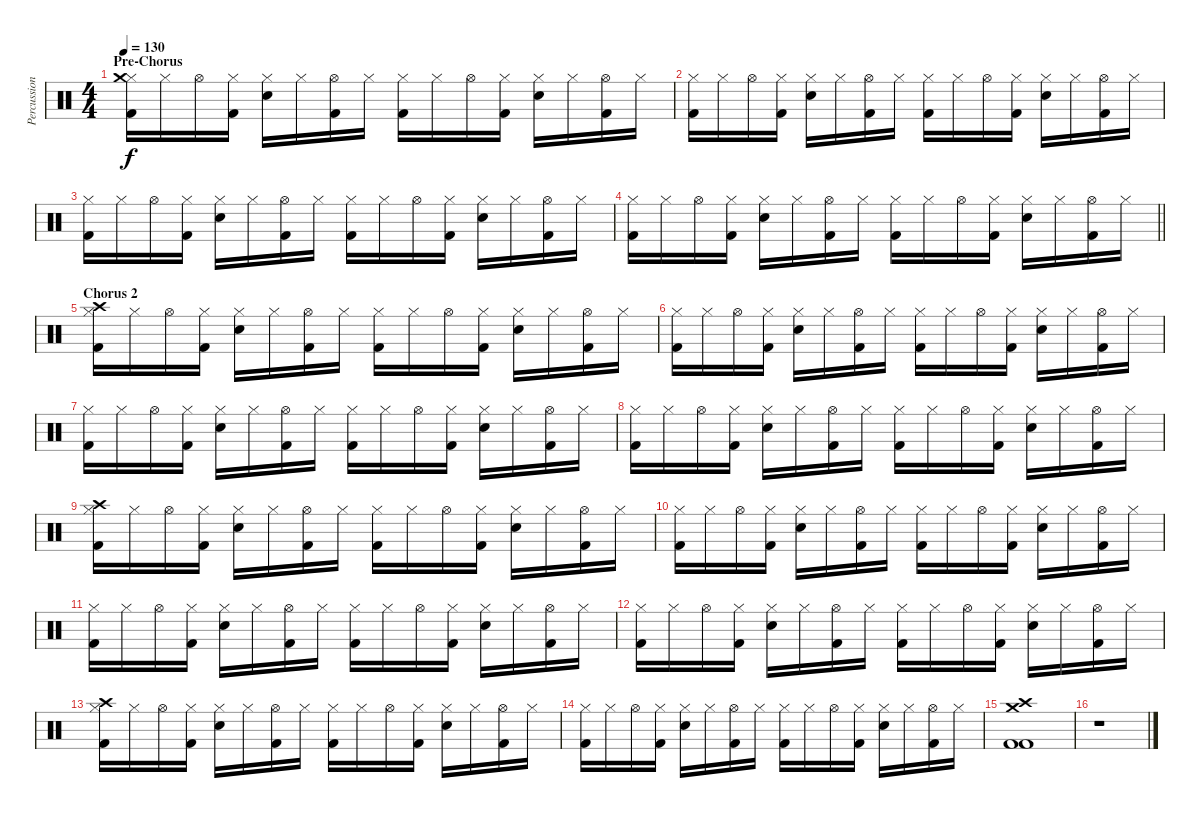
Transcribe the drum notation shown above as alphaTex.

\track ("Percussion" "Percussion") {instrument percussion}
\staff {score}
\articulation defaults
\ts (4 4)
\section ("" "Pre-Chorus")
\tempo 130
\clef neutral
\ks c
("Hi-Hat (closed)" "Crash medium (hit)" "Kick (hit) 2").16{dy f} "Hi-Hat (closed)".16 "Hi-Hat (open)".16 ("Hi-Hat (closed)" "Kick (hit) 2").16 ("Hi-Hat (closed)" "Snare (hit) 2").16 "Hi-Hat (closed)".16 ("Hi-Hat (open)" "Kick (hit) 2").16 "Hi-Hat (closed)".16 ("Hi-Hat (closed)" "Kick (hit) 2").16 "Hi-Hat (closed)".16 "Hi-Hat (open)".16 ("Hi-Hat (closed)" "Kick (hit) 2").16 ("Hi-Hat (closed)" "Snare (hit) 2").16 "Hi-Hat (closed)".16 ("Hi-Hat (open)" "Kick (hit) 2").16 "Hi-Hat (closed)".16 |
("Hi-Hat (closed)" "Kick (hit) 2").16 "Hi-Hat (closed)".16 "Hi-Hat (open)".16 ("Hi-Hat (closed)" "Kick (hit) 2").16 ("Hi-Hat (closed)" "Snare (hit) 2").16 "Hi-Hat (closed)".16 ("Hi-Hat (open)" "Kick (hit) 2").16 "Hi-Hat (closed)".16 ("Hi-Hat (closed)" "Kick (hit) 2").16 "Hi-Hat (closed)".16 "Hi-Hat (open)".16 ("Hi-Hat (closed)" "Kick (hit) 2").16 ("Hi-Hat (closed)" "Snare (hit) 2").16 "Hi-Hat (closed)".16 ("Hi-Hat (open)" "Kick (hit) 2").16 "Hi-Hat (closed)".16 |
("Hi-Hat (closed)" "Kick (hit) 2").16 "Hi-Hat (closed)".16 "Hi-Hat (open)".16 ("Hi-Hat (closed)" "Kick (hit) 2").16 ("Hi-Hat (closed)" "Snare (hit) 2").16 "Hi-Hat (closed)".16 ("Hi-Hat (open)" "Kick (hit) 2").16 "Hi-Hat (closed)".16 ("Hi-Hat (closed)" "Kick (hit) 2").16 "Hi-Hat (closed)".16 "Hi-Hat (open)".16 ("Hi-Hat (closed)" "Kick (hit) 2").16 ("Hi-Hat (closed)" "Snare (hit) 2").16 "Hi-Hat (closed)".16 ("Hi-Hat (open)" "Kick (hit) 2").16 "Hi-Hat (closed)".16 |
\barLineRight lightlight
("Hi-Hat (closed)" "Kick (hit) 2").16 "Hi-Hat (closed)".16 "Hi-Hat (open)".16 ("Hi-Hat (closed)" "Kick (hit) 2").16 ("Hi-Hat (closed)" "Snare (hit) 2").16 "Hi-Hat (closed)".16 ("Hi-Hat (open)" "Kick (hit) 2").16 "Hi-Hat (closed)".16 ("Hi-Hat (closed)" "Kick (hit) 2").16 "Hi-Hat (closed)".16 "Hi-Hat (open)".16 ("Hi-Hat (closed)" "Kick (hit) 2").16 ("Hi-Hat (closed)" "Snare (hit) 2").16 "Hi-Hat (closed)".16 ("Hi-Hat (open)" "Kick (hit) 2").16 "Hi-Hat (closed)".16 |
\section ("" "Chorus 2")
("Hi-Hat (closed)" "Crash high (hit)" "Kick (hit) 2").16 "Hi-Hat (closed)".16 "Hi-Hat (open)".16 ("Hi-Hat (closed)" "Kick (hit) 2").16 ("Hi-Hat (closed)" "Snare (hit) 2").16 "Hi-Hat (closed)".16 ("Hi-Hat (open)" "Kick (hit) 2").16 "Hi-Hat (closed)".16 ("Hi-Hat (closed)" "Kick (hit) 2").16 "Hi-Hat (closed)".16 "Hi-Hat (open)".16 ("Hi-Hat (closed)" "Kick (hit) 2").16 ("Hi-Hat (closed)" "Snare (hit) 2").16 "Hi-Hat (closed)".16 ("Hi-Hat (open)" "Kick (hit) 2").16 "Hi-Hat (closed)".16 |
("Hi-Hat (closed)" "Kick (hit) 2").16 "Hi-Hat (closed)".16 "Hi-Hat (open)".16 ("Hi-Hat (closed)" "Kick (hit) 2").16 ("Hi-Hat (closed)" "Snare (hit) 2").16 "Hi-Hat (closed)".16 ("Hi-Hat (open)" "Kick (hit) 2").16 "Hi-Hat (closed)".16 ("Hi-Hat (closed)" "Kick (hit) 2").16 "Hi-Hat (closed)".16 "Hi-Hat (open)".16 ("Hi-Hat (closed)" "Kick (hit) 2").16 ("Hi-Hat (closed)" "Snare (hit) 2").16 "Hi-Hat (closed)".16 ("Hi-Hat (open)" "Kick (hit) 2").16 "Hi-Hat (closed)".16 |
("Hi-Hat (closed)" "Kick (hit) 2").16 "Hi-Hat (closed)".16 "Hi-Hat (open)".16 ("Hi-Hat (closed)" "Kick (hit) 2").16 ("Hi-Hat (closed)" "Snare (hit) 2").16 "Hi-Hat (closed)".16 ("Hi-Hat (open)" "Kick (hit) 2").16 "Hi-Hat (closed)".16 ("Hi-Hat (closed)" "Kick (hit) 2").16 "Hi-Hat (closed)".16 "Hi-Hat (open)".16 ("Hi-Hat (closed)" "Kick (hit) 2").16 ("Hi-Hat (closed)" "Snare (hit) 2").16 "Hi-Hat (closed)".16 ("Hi-Hat (open)" "Kick (hit) 2").16 "Hi-Hat (closed)".16 |
("Hi-Hat (closed)" "Kick (hit) 2").16 "Hi-Hat (closed)".16 "Hi-Hat (open)".16 ("Hi-Hat (closed)" "Kick (hit) 2").16 ("Hi-Hat (closed)" "Snare (hit) 2").16 "Hi-Hat (closed)".16 ("Hi-Hat (open)" "Kick (hit) 2").16 "Hi-Hat (closed)".16 ("Hi-Hat (closed)" "Kick (hit) 2").16 "Hi-Hat (closed)".16 "Hi-Hat (open)".16 ("Hi-Hat (closed)" "Kick (hit) 2").16 ("Hi-Hat (closed)" "Snare (hit) 2").16 "Hi-Hat (closed)".16 ("Hi-Hat (open)" "Kick (hit) 2").16 "Hi-Hat (closed)".16 |
("Hi-Hat (closed)" "Crash high (hit)" "Kick (hit) 2").16 "Hi-Hat (closed)".16 "Hi-Hat (open)".16 ("Hi-Hat (closed)" "Kick (hit) 2").16 ("Hi-Hat (closed)" "Snare (hit) 2").16 "Hi-Hat (closed)".16 ("Hi-Hat (open)" "Kick (hit) 2").16 "Hi-Hat (closed)".16 ("Hi-Hat (closed)" "Kick (hit) 2").16 "Hi-Hat (closed)".16 "Hi-Hat (open)".16 ("Hi-Hat (closed)" "Kick (hit) 2").16 ("Hi-Hat (closed)" "Snare (hit) 2").16 "Hi-Hat (closed)".16 ("Hi-Hat (open)" "Kick (hit) 2").16 "Hi-Hat (closed)".16 |
("Hi-Hat (closed)" "Kick (hit) 2").16 "Hi-Hat (closed)".16 "Hi-Hat (open)".16 ("Hi-Hat (closed)" "Kick (hit) 2").16 ("Hi-Hat (closed)" "Snare (hit) 2").16 "Hi-Hat (closed)".16 ("Hi-Hat (open)" "Kick (hit) 2").16 "Hi-Hat (closed)".16 ("Hi-Hat (closed)" "Kick (hit) 2").16 "Hi-Hat (closed)".16 "Hi-Hat (open)".16 ("Hi-Hat (closed)" "Kick (hit) 2").16 ("Hi-Hat (closed)" "Snare (hit) 2").16 "Hi-Hat (closed)".16 ("Hi-Hat (open)" "Kick (hit) 2").16 "Hi-Hat (closed)".16 |
("Hi-Hat (closed)" "Kick (hit) 2").16 "Hi-Hat (closed)".16 "Hi-Hat (open)".16 ("Hi-Hat (closed)" "Kick (hit) 2").16 ("Hi-Hat (closed)" "Snare (hit) 2").16 "Hi-Hat (closed)".16 ("Hi-Hat (open)" "Kick (hit) 2").16 "Hi-Hat (closed)".16 ("Hi-Hat (closed)" "Kick (hit) 2").16 "Hi-Hat (closed)".16 "Hi-Hat (open)".16 ("Hi-Hat (closed)" "Kick (hit) 2").16 ("Hi-Hat (closed)" "Snare (hit) 2").16 "Hi-Hat (closed)".16 ("Hi-Hat (open)" "Kick (hit) 2").16 "Hi-Hat (closed)".16 |
("Hi-Hat (closed)" "Kick (hit) 2").16 "Hi-Hat (closed)".16 "Hi-Hat (open)".16 ("Hi-Hat (closed)" "Kick (hit) 2").16 ("Hi-Hat (closed)" "Snare (hit) 2").16 "Hi-Hat (closed)".16 ("Hi-Hat (open)" "Kick (hit) 2").16 "Hi-Hat (closed)".16 ("Hi-Hat (closed)" "Kick (hit) 2").16 "Hi-Hat (closed)".16 "Hi-Hat (open)".16 ("Hi-Hat (closed)" "Kick (hit) 2").16 ("Hi-Hat (closed)" "Snare (hit) 2").16 "Hi-Hat (closed)".16 ("Hi-Hat (open)" "Kick (hit) 2").16 "Hi-Hat (closed)".16 |
("Hi-Hat (closed)" "Crash high (hit)" "Kick (hit) 2").16 "Hi-Hat (closed)".16 "Hi-Hat (open)".16 ("Hi-Hat (closed)" "Kick (hit) 2").16 ("Hi-Hat (closed)" "Snare (hit) 2").16 "Hi-Hat (closed)".16 ("Hi-Hat (open)" "Kick (hit) 2").16 "Hi-Hat (closed)".16 ("Hi-Hat (closed)" "Kick (hit) 2").16 "Hi-Hat (closed)".16 "Hi-Hat (open)".16 ("Hi-Hat (closed)" "Kick (hit) 2").16 ("Hi-Hat (closed)" "Snare (hit) 2").16 "Hi-Hat (closed)".16 ("Hi-Hat (open)" "Kick (hit) 2").16 "Hi-Hat (closed)".16 |
("Hi-Hat (closed)" "Kick (hit) 2").16 "Hi-Hat (closed)".16 "Hi-Hat (open)".16 ("Hi-Hat (closed)" "Kick (hit) 2").16 ("Hi-Hat (closed)" "Snare (hit) 2").16 "Hi-Hat (closed)".16 ("Hi-Hat (open)" "Kick (hit) 2").16 "Hi-Hat (closed)".16 ("Hi-Hat (closed)" "Kick (hit) 2").16 "Hi-Hat (closed)".16 "Hi-Hat (open)".16 ("Hi-Hat (closed)" "Kick (hit) 2").16 ("Hi-Hat (closed)" "Snare (hit) 2").16 "Hi-Hat (closed)".16 ("Hi-Hat (open)" "Kick (hit) 2").16 "Hi-Hat (closed)".16 |
("Crash high (hit)" "Crash medium (hit)" "Kick (hit) 2" "Kick (hit) 2").1 |
r.1
